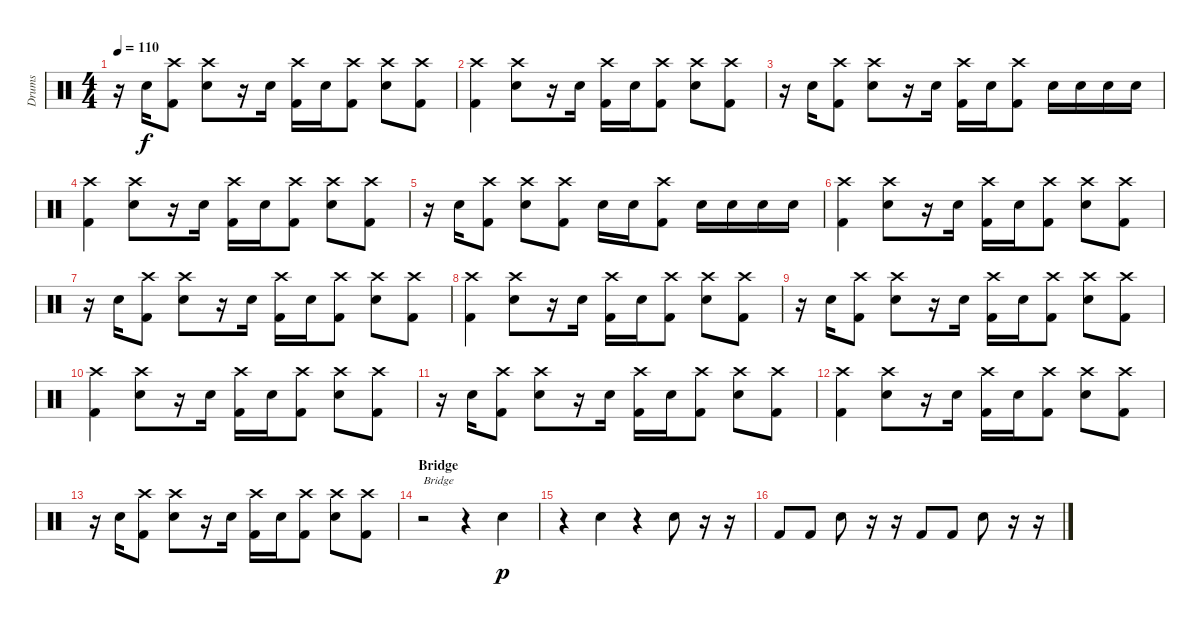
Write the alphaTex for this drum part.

\track ("Drums" "Drums") {instrument percussion}
\staff {score}
\articulation defaults
\ts (4 4)
\tempo 110
\clef neutral
\ks c
r.16{dy f} "Electric Snare (hit)".16 ("Crash high (hit)" "Kick (hit) 2").8 ("Crash high (hit)" "Electric Snare (hit)").8 r.16 "Electric Snare (hit)".16 ("Crash high (hit)" "Kick (hit) 2").16 "Electric Snare (hit)".16 ("Crash high (hit)" "Kick (hit) 2").8 ("Crash high (hit)" "Electric Snare (hit)").8 ("Crash high (hit)" "Kick (hit) 2").8 |
("Crash high (hit)" "Kick (hit) 2").4 ("Crash high (hit)" "Electric Snare (hit)").8 r.16 "Electric Snare (hit)".16 ("Crash high (hit)" "Kick (hit) 2").16 "Electric Snare (hit)".16 ("Crash high (hit)" "Kick (hit) 2").8 ("Crash high (hit)" "Electric Snare (hit)").8 ("Crash high (hit)" "Kick (hit) 2").8 |
r.16 "Electric Snare (hit)".16 ("Crash high (hit)" "Kick (hit) 2").8 ("Crash high (hit)" "Electric Snare (hit)").8 r.16 "Electric Snare (hit)".16 ("Crash high (hit)" "Kick (hit) 2").16 "Electric Snare (hit)".16 ("Crash high (hit)" "Kick (hit) 2").8 "Electric Snare (hit)".16 "Electric Snare (hit)".16 "Electric Snare (hit)".16 "Electric Snare (hit)".16 |
("Crash high (hit)" "Kick (hit) 2").4 ("Crash high (hit)" "Electric Snare (hit)").8 r.16 "Electric Snare (hit)".16 ("Crash high (hit)" "Kick (hit) 2").16 "Electric Snare (hit)".16 ("Crash high (hit)" "Kick (hit) 2").8 ("Crash high (hit)" "Electric Snare (hit)").8 ("Crash high (hit)" "Kick (hit) 2").8 |
r.16 "Electric Snare (hit)".16 ("Crash high (hit)" "Kick (hit) 2").8 ("Crash high (hit)" "Electric Snare (hit)").8 ("Crash high (hit)" "Kick (hit) 2").8 "Electric Snare (hit)".16 "Electric Snare (hit)".16 ("Crash high (hit)" "Kick (hit) 2").8 "Electric Snare (hit)".16 "Electric Snare (hit)".16 "Electric Snare (hit)".16 "Electric Snare (hit)".16 |
("Crash high (hit)" "Kick (hit) 2").4 ("Crash high (hit)" "Electric Snare (hit)").8 r.16 "Electric Snare (hit)".16 ("Crash high (hit)" "Kick (hit) 2").16 "Electric Snare (hit)".16 ("Crash high (hit)" "Kick (hit) 2").8 ("Crash high (hit)" "Electric Snare (hit)").8 ("Crash high (hit)" "Kick (hit) 2").8 |
r.16 "Electric Snare (hit)".16 ("Crash high (hit)" "Kick (hit) 2").8 ("Crash high (hit)" "Electric Snare (hit)").8 r.16 "Electric Snare (hit)".16 ("Crash high (hit)" "Kick (hit) 2").16 "Electric Snare (hit)".16 ("Crash high (hit)" "Kick (hit) 2").8 ("Crash high (hit)" "Electric Snare (hit)").8 ("Crash high (hit)" "Kick (hit) 2").8 |
("Crash high (hit)" "Kick (hit) 2").4 ("Crash high (hit)" "Electric Snare (hit)").8 r.16 "Electric Snare (hit)".16 ("Crash high (hit)" "Kick (hit) 2").16 "Electric Snare (hit)".16 ("Crash high (hit)" "Kick (hit) 2").8 ("Crash high (hit)" "Electric Snare (hit)").8 ("Crash high (hit)" "Kick (hit) 2").8 |
r.16 "Electric Snare (hit)".16 ("Crash high (hit)" "Kick (hit) 2").8 ("Crash high (hit)" "Electric Snare (hit)").8 r.16 "Electric Snare (hit)".16 ("Crash high (hit)" "Kick (hit) 2").16 "Electric Snare (hit)".16 ("Crash high (hit)" "Kick (hit) 2").8 ("Crash high (hit)" "Electric Snare (hit)").8 ("Crash high (hit)" "Kick (hit) 2").8 |
("Crash high (hit)" "Kick (hit) 2").4 ("Crash high (hit)" "Electric Snare (hit)").8 r.16 "Electric Snare (hit)".16 ("Crash high (hit)" "Kick (hit) 2").16 "Electric Snare (hit)".16 ("Crash high (hit)" "Kick (hit) 2").8 ("Crash high (hit)" "Electric Snare (hit)").8 ("Crash high (hit)" "Kick (hit) 2").8 |
r.16 "Electric Snare (hit)".16 ("Crash high (hit)" "Kick (hit) 2").8 ("Crash high (hit)" "Electric Snare (hit)").8 r.16 "Electric Snare (hit)".16 ("Crash high (hit)" "Kick (hit) 2").16 "Electric Snare (hit)".16 ("Crash high (hit)" "Kick (hit) 2").8 ("Crash high (hit)" "Electric Snare (hit)").8 ("Crash high (hit)" "Kick (hit) 2").8 |
("Crash high (hit)" "Kick (hit) 2").4 ("Crash high (hit)" "Electric Snare (hit)").8 r.16 "Electric Snare (hit)".16 ("Crash high (hit)" "Kick (hit) 2").16 "Electric Snare (hit)".16 ("Crash high (hit)" "Kick (hit) 2").8 ("Crash high (hit)" "Electric Snare (hit)").8 ("Crash high (hit)" "Kick (hit) 2").8 |
r.16 "Electric Snare (hit)".16 ("Crash high (hit)" "Kick (hit) 2").8 ("Crash high (hit)" "Electric Snare (hit)").8 r.16 "Electric Snare (hit)".16 ("Crash high (hit)" "Kick (hit) 2").16 "Electric Snare (hit)".16 ("Crash high (hit)" "Kick (hit) 2").8 ("Crash high (hit)" "Electric Snare (hit)").8 ("Crash high (hit)" "Kick (hit) 2").8 |
\section ("" "Bridge")
r.2{txt "Bridge"} r.4 "Electric Snare (hit)".4{dy p} |
r.4 "Electric Snare (hit)".4 r.4 "Electric Snare (hit)".8 r.16 r.16 |
"Kick (hit) 2".8 "Kick (hit) 2".8 "Electric Snare (hit)".8 r.16 r.16 "Kick (hit) 2".8 "Kick (hit) 2".8 "Electric Snare (hit)".8 r.16 r.16
